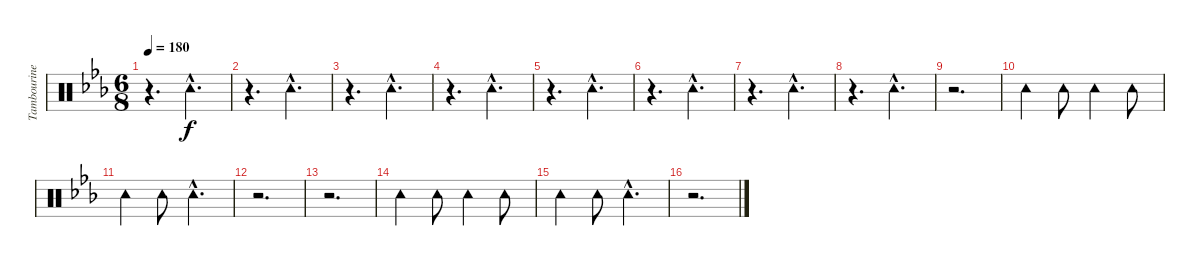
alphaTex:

\track ("Tambourine" "Tambourine") {instrument percussion}
\staff {score}
\articulation defaults
\ts (6 8)
\tempo 180
\clef neutral
\ks cminor
r.4{d dy f} "Tambourine (hit)"{hac}.4{d} |
r.4{d} "Tambourine (hit)"{hac}.4{d} |
r.4{d} "Tambourine (hit)"{hac}.4{d} |
r.4{d} "Tambourine (hit)"{hac}.4{d} |
r.4{d} "Tambourine (hit)"{hac}.4{d} |
r.4{d} "Tambourine (hit)"{hac}.4{d} |
r.4{d} "Tambourine (hit)"{hac}.4{d} |
r.4{d} "Tambourine (hit)"{hac}.4{d} |
r.2{d} |
"Tambourine (hit)".4 "Tambourine (hit)".8 "Tambourine (hit)".4 "Tambourine (hit)".8 |
"Tambourine (hit)".4 "Tambourine (hit)".8 "Tambourine (hit)"{hac}.4{d} |
r.2{d} |
r.2{d} |
"Tambourine (hit)".4 "Tambourine (hit)".8 "Tambourine (hit)".4 "Tambourine (hit)".8 |
"Tambourine (hit)".4 "Tambourine (hit)".8 "Tambourine (hit)"{hac}.4{d} |
r.2{d}
